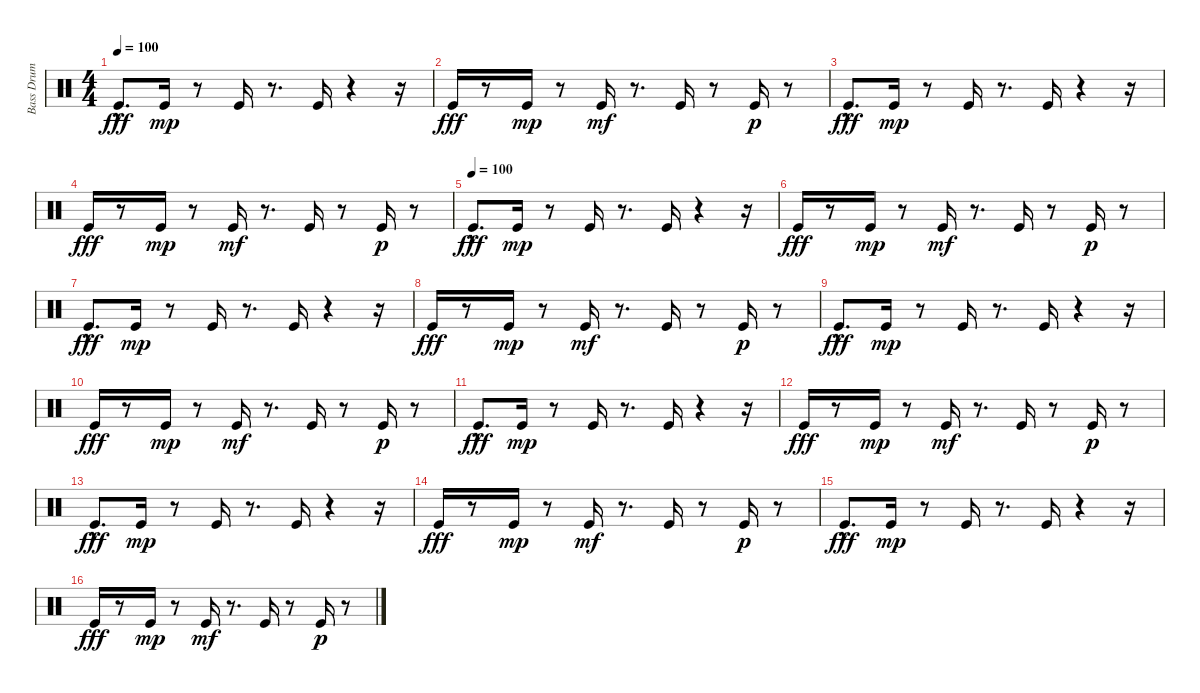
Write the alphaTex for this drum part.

\track ("Bass Drum" "Bass Drum") {instrument percussion}
\staff {score}
\articulation defaults
\ts (4 4)
\tempo 100
\clef neutral
\ks c "Kick (hit)"{hac}.8{d dy fff} "Kick (hit)".16{dy mp}
r.8 "Kick (hit)".16 r.8{d} "Kick (hit)".16 r.4 r.16 |
"Kick (hit)".16{dy fff} r.8 "Kick (hit)".16{dy mp} r.8 "Kick (hit)".16{dy mf} r.8{d} "Kick (hit)".16 r.8 "Kick (hit)".16{dy p} r.8 |
"Kick (hit)"{hac}.8{d dy fff} "Kick (hit)".16{dy mp} r.8 "Kick (hit)".16 r.8{d} "Kick (hit)".16 r.4 r.16 |
"Kick (hit)".16{dy fff} r.8 "Kick (hit)".16{dy mp} r.8 "Kick (hit)".16{dy mf} r.8{d} "Kick (hit)".16 r.8 "Kick (hit)".16{dy p} r.8 |
\tempo (100)
"Kick (hit)"{hac}.8{d dy fff} "Kick (hit)".16{dy mp} r.8 "Kick (hit)".16 r.8{d} "Kick (hit)".16 r.4 r.16 |
"Kick (hit)".16{dy fff} r.8 "Kick (hit)".16{dy mp} r.8 "Kick (hit)".16{dy mf} r.8{d} "Kick (hit)".16 r.8 "Kick (hit)".16{dy p} r.8 |
"Kick (hit)"{hac}.8{d dy fff} "Kick (hit)".16{dy mp} r.8 "Kick (hit)".16 r.8{d} "Kick (hit)".16 r.4 r.16 |
"Kick (hit)".16{dy fff} r.8 "Kick (hit)".16{dy mp} r.8 "Kick (hit)".16{dy mf} r.8{d} "Kick (hit)".16 r.8 "Kick (hit)".16{dy p} r.8 |
"Kick (hit)"{hac}.8{d dy fff} "Kick (hit)".16{dy mp} r.8 "Kick (hit)".16 r.8{d} "Kick (hit)".16 r.4 r.16 |
"Kick (hit)".16{dy fff} r.8 "Kick (hit)".16{dy mp} r.8 "Kick (hit)".16{dy mf} r.8{d} "Kick (hit)".16 r.8 "Kick (hit)".16{dy p} r.8 |
"Kick (hit)"{hac}.8{d dy fff} "Kick (hit)".16{dy mp} r.8 "Kick (hit)".16 r.8{d} "Kick (hit)".16 r.4 r.16 |
"Kick (hit)".16{dy fff} r.8 "Kick (hit)".16{dy mp} r.8 "Kick (hit)".16{dy mf} r.8{d} "Kick (hit)".16 r.8 "Kick (hit)".16{dy p} r.8 |
"Kick (hit)"{hac}.8{d dy fff} "Kick (hit)".16{dy mp} r.8 "Kick (hit)".16 r.8{d} "Kick (hit)".16 r.4 r.16 |
"Kick (hit)".16{dy fff} r.8 "Kick (hit)".16{dy mp} r.8 "Kick (hit)".16{dy mf} r.8{d} "Kick (hit)".16 r.8 "Kick (hit)".16{dy p} r.8 |
"Kick (hit)"{hac}.8{d dy fff} "Kick (hit)".16{dy mp} r.8 "Kick (hit)".16 r.8{d} "Kick (hit)".16 r.4 r.16 |
"Kick (hit)".16{dy fff} r.8 "Kick (hit)".16{dy mp} r.8 "Kick (hit)".16{dy mf} r.8{d} "Kick (hit)".16 r.8 "Kick (hit)".16{dy p} r.8
